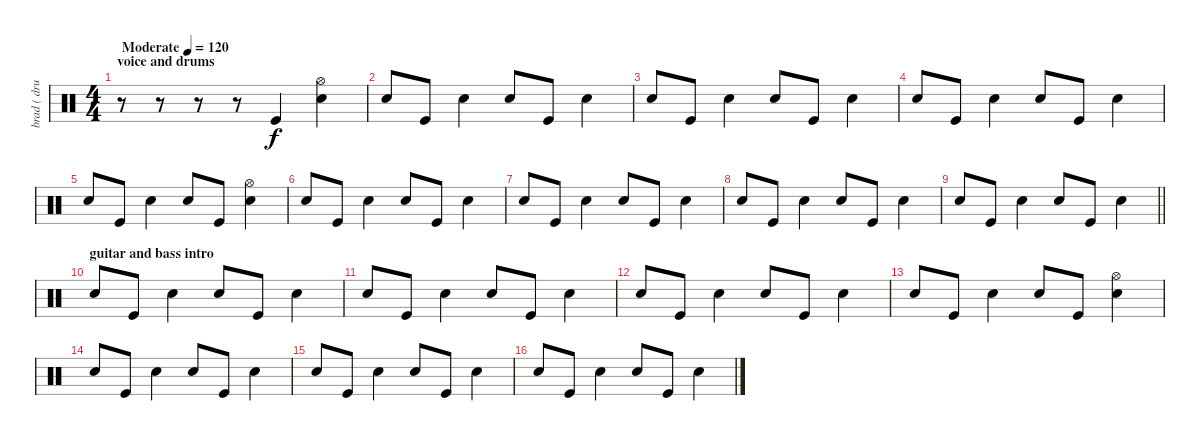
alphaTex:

\track ("brad ( drums)" "brad ( dru") {instrument percussion}
\staff {score}
\articulation defaults
\ts (4 4)
\section ("" "voice and drums")
\tempo (120 "Moderate")
\clef neutral
\ks c
r.8{dy f} r.8 r.8 r.8 "Kick (hit)".4 ("Electric Snare (hit)" "Hi-Hat (open)").4 |
"Electric Snare (hit)".8 "Kick (hit)".8 "Electric Snare (hit)".4 "Electric Snare (hit)".8 "Kick (hit)".8 "Electric Snare (hit)".4 |
"Electric Snare (hit)".8 "Kick (hit)".8 "Electric Snare (hit)".4 "Electric Snare (hit)".8 "Kick (hit)".8 "Electric Snare (hit)".4 |
"Electric Snare (hit)".8 "Kick (hit)".8 "Electric Snare (hit)".4 "Electric Snare (hit)".8 "Kick (hit)".8 "Electric Snare (hit)".4 |
"Electric Snare (hit)".8 "Kick (hit)".8 "Electric Snare (hit)".4 "Electric Snare (hit)".8 "Kick (hit)".8 ("Electric Snare (hit)" "Hi-Hat (open)").4 |
"Electric Snare (hit)".8 "Kick (hit)".8 "Electric Snare (hit)".4 "Electric Snare (hit)".8 "Kick (hit)".8 "Electric Snare (hit)".4 |
"Electric Snare (hit)".8 "Kick (hit)".8 "Electric Snare (hit)".4 "Electric Snare (hit)".8 "Kick (hit)".8 "Electric Snare (hit)".4 |
"Electric Snare (hit)".8 "Kick (hit)".8 "Electric Snare (hit)".4 "Electric Snare (hit)".8 "Kick (hit)".8 "Electric Snare (hit)".4 |
\barLineRight lightlight "Electric Snare (hit)".8 "Kick (hit)".8 "Electric Snare (hit)".4 "Electric Snare (hit)".8 "Kick (hit)".8 "Electric Snare (hit)".4
|
\section ("" "guitar and bass intro")
"Electric Snare (hit)".8 "Kick (hit)".8 "Electric Snare (hit)".4 "Electric Snare (hit)".8 "Kick (hit)".8 "Electric Snare (hit)".4 |
"Electric Snare (hit)".8 "Kick (hit)".8 "Electric Snare (hit)".4 "Electric Snare (hit)".8 "Kick (hit)".8 "Electric Snare (hit)".4 |
"Electric Snare (hit)".8 "Kick (hit)".8 "Electric Snare (hit)".4 "Electric Snare (hit)".8 "Kick (hit)".8 "Electric Snare (hit)".4 |
"Electric Snare (hit)".8 "Kick (hit)".8 "Electric Snare (hit)".4 "Electric Snare (hit)".8 "Kick (hit)".8 ("Electric Snare (hit)" "Hi-Hat (open)").4 |
"Electric Snare (hit)".8 "Kick (hit)".8 "Electric Snare (hit)".4 "Electric Snare (hit)".8 "Kick (hit)".8 "Electric Snare (hit)".4 |
"Electric Snare (hit)".8 "Kick (hit)".8 "Electric Snare (hit)".4 "Electric Snare (hit)".8 "Kick (hit)".8 "Electric Snare (hit)".4 |
"Electric Snare (hit)".8 "Kick (hit)".8 "Electric Snare (hit)".4 "Electric Snare (hit)".8 "Kick (hit)".8 "Electric Snare (hit)".4
